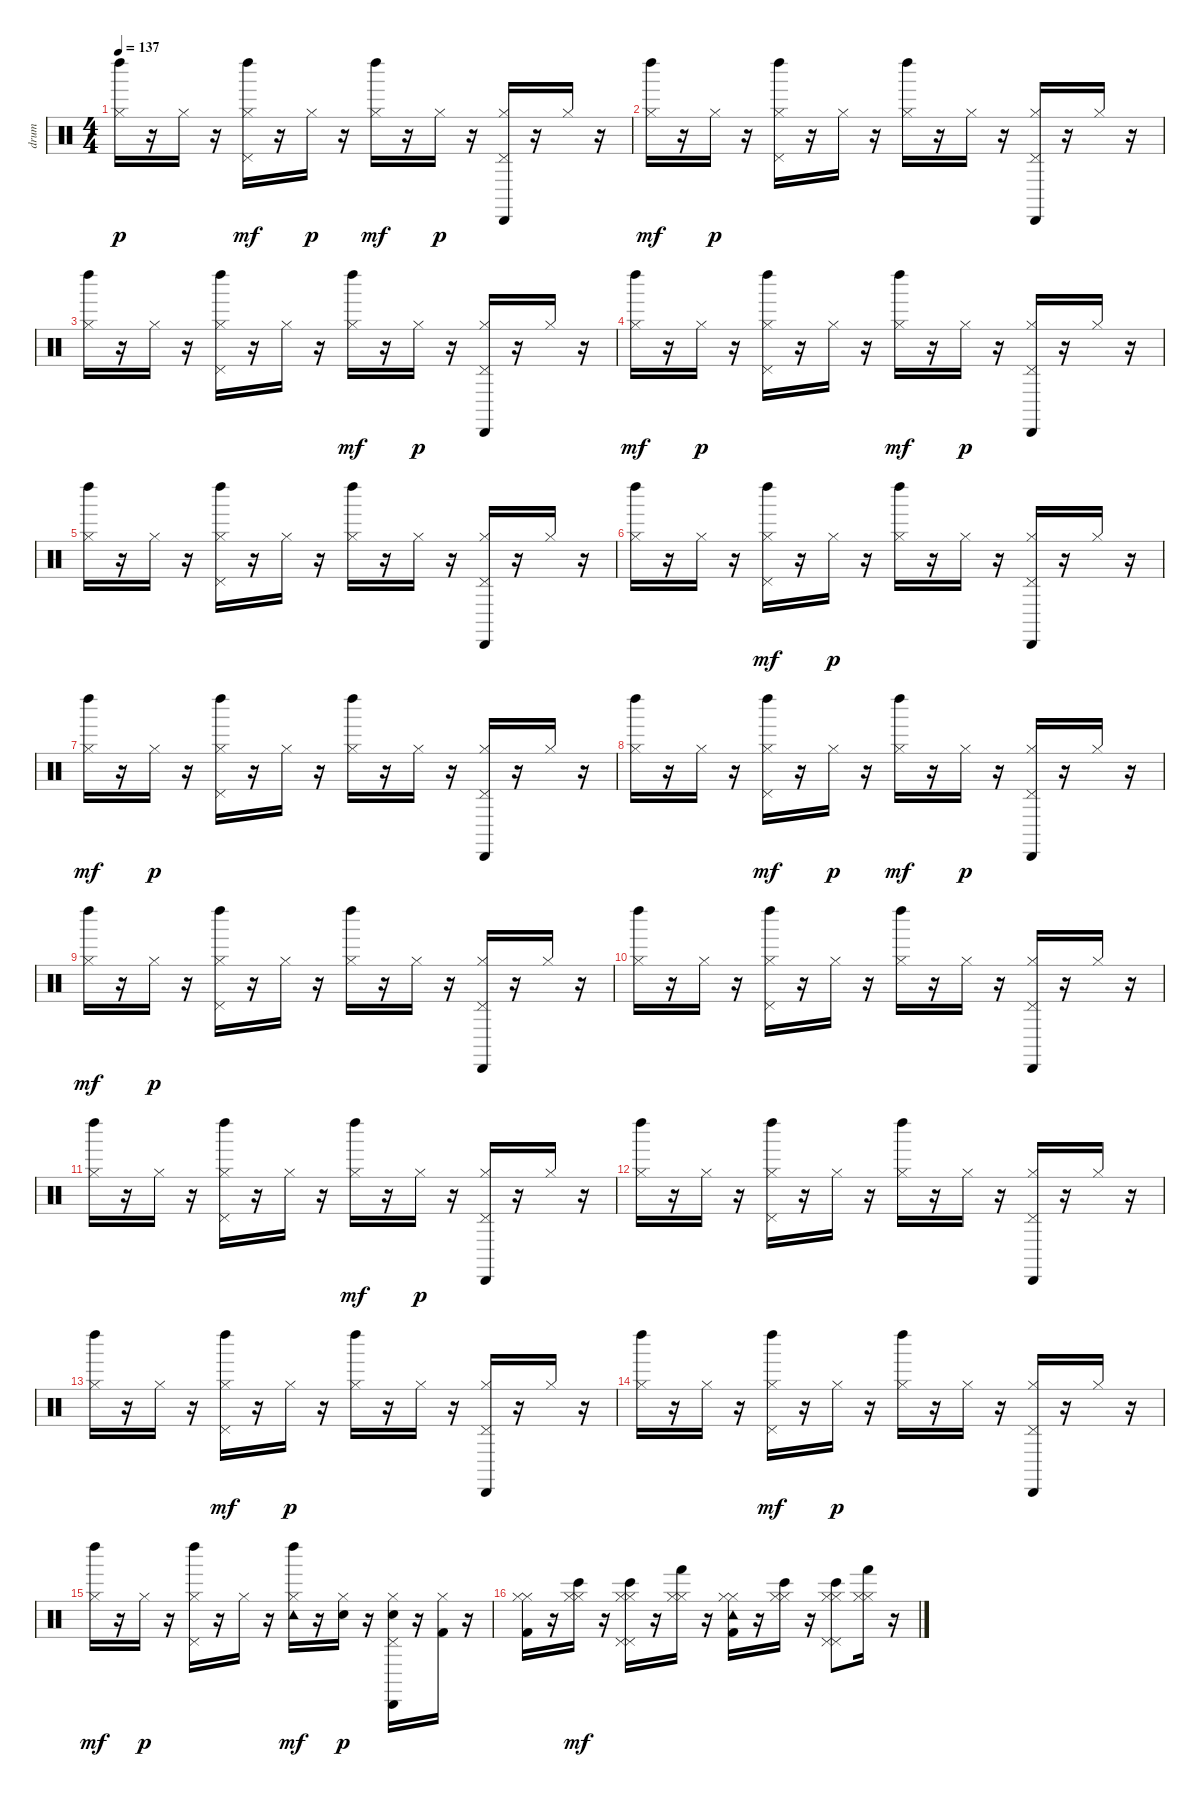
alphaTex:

\track ("drum" "drum") {instrument percussion}
\staff {score}
\articulation defaults
\ts (4 4)
\tempo 137
\clef neutral
\ks c
("Left Maraca (hit)" "Hi-Hat (closed)").16{dy p} r.16 "Hi-Hat (closed)".16 r.16 ("Hi-Hat (closed)" "Left Maraca (hit)" "Pedal Hi-Hat (hit)").16{dy mf} r.16 "Hi-Hat (closed)".16{dy p} r.16 ("Hi-Hat (closed)" "Left Maraca (hit)").16{dy mf} r.16 "Hi-Hat (closed)".16{dy p} r.16 ("Cabasa (hit)" "Hi-Hat (closed)" "Pedal Hi-Hat (hit)").16 r.16 "Hi-Hat (closed)".16 r.16 |
("Hi-Hat (closed)" "Left Maraca (hit)").16{dy mf} r.16 "Hi-Hat (closed)".16{dy p} r.16 ("Left Maraca (hit)" "Hi-Hat (closed)" "Pedal Hi-Hat (hit)").16 r.16 "Hi-Hat (closed)".16 r.16 ("Left Maraca (hit)" "Hi-Hat (closed)").16 r.16 "Hi-Hat (closed)".16 r.16 ("Hi-Hat (closed)" "Cabasa (hit)" "Pedal Hi-Hat (hit)").16 r.16 "Hi-Hat (closed)".16 r.16 |
("Left Maraca (hit)" "Hi-Hat (closed)").16 r.16 "Hi-Hat (closed)".16 r.16 ("Left Maraca (hit)" "Hi-Hat (closed)" "Pedal Hi-Hat (hit)").16 r.16 "Hi-Hat (closed)".16 r.16 ("Hi-Hat (closed)" "Left Maraca (hit)").16{dy mf} r.16 "Hi-Hat (closed)".16{dy p} r.16 ("Hi-Hat (closed)" "Cabasa (hit)" "Pedal Hi-Hat (hit)").16 r.16 "Hi-Hat (closed)".16 r.16 |
("Hi-Hat (closed)" "Left Maraca (hit)").16{dy mf} r.16 "Hi-Hat (closed)".16{dy p} r.16 ("Left Maraca (hit)" "Hi-Hat (closed)" "Pedal Hi-Hat (hit)").16 r.16 "Hi-Hat (closed)".16 r.16 ("Hi-Hat (closed)" "Left Maraca (hit)").16{dy mf} r.16 "Hi-Hat (closed)".16{dy p} r.16 ("Cabasa (hit)" "Hi-Hat (closed)" "Pedal Hi-Hat (hit)").16 r.16 "Hi-Hat (closed)".16 r.16 |
("Left Maraca (hit)" "Hi-Hat (closed)").16 r.16 "Hi-Hat (closed)".16 r.16 ("Left Maraca (hit)" "Hi-Hat (closed)" "Pedal Hi-Hat (hit)").16 r.16 "Hi-Hat (closed)".16 r.16 ("Left Maraca (hit)" "Hi-Hat (closed)").16 r.16 "Hi-Hat (closed)".16 r.16 ("Hi-Hat (closed)" "Cabasa (hit)" "Pedal Hi-Hat (hit)").16 r.16 "Hi-Hat (closed)".16 r.16 |
("Left Maraca (hit)" "Hi-Hat (closed)").16 r.16 "Hi-Hat (closed)".16 r.16 ("Hi-Hat (closed)" "Left Maraca (hit)" "Pedal Hi-Hat (hit)").16{dy mf} r.16 "Hi-Hat (closed)".16{dy p} r.16 ("Left Maraca (hit)" "Hi-Hat (closed)").16 r.16 "Hi-Hat (closed)".16 r.16 ("Hi-Hat (closed)" "Cabasa (hit)" "Pedal Hi-Hat (hit)").16 r.16 "Hi-Hat (closed)".16 r.16 |
("Hi-Hat (closed)" "Left Maraca (hit)").16{dy mf} r.16 "Hi-Hat (closed)".16{dy p} r.16 ("Left Maraca (hit)" "Hi-Hat (closed)" "Pedal Hi-Hat (hit)").16 r.16 "Hi-Hat (closed)".16 r.16 ("Left Maraca (hit)" "Hi-Hat (closed)").16 r.16 "Hi-Hat (closed)".16 r.16 ("Hi-Hat (closed)" "Cabasa (hit)" "Pedal Hi-Hat (hit)").16 r.16 "Hi-Hat (closed)".16 r.16 |
("Left Maraca (hit)" "Hi-Hat (closed)").16 r.16 "Hi-Hat (closed)".16 r.16 ("Hi-Hat (closed)" "Left Maraca (hit)" "Pedal Hi-Hat (hit)").16{dy mf} r.16 "Hi-Hat (closed)".16{dy p} r.16 ("Hi-Hat (closed)" "Left Maraca (hit)").16{dy mf} r.16 "Hi-Hat (closed)".16{dy p} r.16 ("Cabasa (hit)" "Hi-Hat (closed)" "Pedal Hi-Hat (hit)").16 r.16 "Hi-Hat (closed)".16 r.16 |
("Hi-Hat (closed)" "Left Maraca (hit)").16{dy mf} r.16 "Hi-Hat (closed)".16{dy p} r.16 ("Left Maraca (hit)" "Hi-Hat (closed)" "Pedal Hi-Hat (hit)").16 r.16 "Hi-Hat (closed)".16 r.16 ("Left Maraca (hit)" "Hi-Hat (closed)").16 r.16 "Hi-Hat (closed)".16 r.16 ("Cabasa (hit)" "Hi-Hat (closed)" "Pedal Hi-Hat (hit)").16 r.16 "Hi-Hat (closed)".16 r.16 |
("Left Maraca (hit)" "Hi-Hat (closed)").16 r.16 "Hi-Hat (closed)".16 r.16 ("Left Maraca (hit)" "Hi-Hat (closed)" "Pedal Hi-Hat (hit)").16 r.16 "Hi-Hat (closed)".16 r.16 ("Left Maraca (hit)" "Hi-Hat (closed)").16 r.16 "Hi-Hat (closed)".16 r.16 ("Cabasa (hit)" "Hi-Hat (closed)" "Pedal Hi-Hat (hit)").16 r.16 "Hi-Hat (closed)".16 r.16 |
("Left Maraca (hit)" "Hi-Hat (closed)").16 r.16 "Hi-Hat (closed)".16 r.16 ("Left Maraca (hit)" "Hi-Hat (closed)" "Pedal Hi-Hat (hit)").16 r.16 "Hi-Hat (closed)".16 r.16 ("Hi-Hat (closed)" "Left Maraca (hit)").16{dy mf} r.16 "Hi-Hat (closed)".16{dy p} r.16 ("Hi-Hat (closed)" "Cabasa (hit)" "Pedal Hi-Hat (hit)").16 r.16 "Hi-Hat (closed)".16 r.16 |
("Left Maraca (hit)" "Hi-Hat (closed)").16 r.16 "Hi-Hat (closed)".16 r.16 ("Left Maraca (hit)" "Hi-Hat (closed)" "Pedal Hi-Hat (hit)").16 r.16 "Hi-Hat (closed)".16 r.16 ("Left Maraca (hit)" "Hi-Hat (closed)").16 r.16 "Hi-Hat (closed)".16 r.16 ("Hi-Hat (closed)" "Cabasa (hit)" "Pedal Hi-Hat (hit)").16 r.16 "Hi-Hat (closed)".16 r.16 |
("Left Maraca (hit)" "Hi-Hat (closed)").16 r.16 "Hi-Hat (closed)".16 r.16 ("Hi-Hat (closed)" "Left Maraca (hit)" "Pedal Hi-Hat (hit)").16{dy mf} r.16 "Hi-Hat (closed)".16{dy p} r.16 ("Left Maraca (hit)" "Hi-Hat (closed)").16 r.16 "Hi-Hat (closed)".16 r.16 ("Hi-Hat (closed)" "Cabasa (hit)" "Pedal Hi-Hat (hit)").16 r.16 "Hi-Hat (closed)".16 r.16 |
("Left Maraca (hit)" "Hi-Hat (closed)").16 r.16 "Hi-Hat (closed)".16 r.16 ("Hi-Hat (closed)" "Left Maraca (hit)" "Pedal Hi-Hat (hit)").16{dy mf} r.16 "Hi-Hat (closed)".16{dy p} r.16 ("Left Maraca (hit)" "Hi-Hat (closed)").16 r.16 "Hi-Hat (closed)".16 r.16 ("Hi-Hat (closed)" "Cabasa (hit)" "Pedal Hi-Hat (hit)").16 r.16 "Hi-Hat (closed)".16 r.16 |
("Hi-Hat (closed)" "Left Maraca (hit)").16{dy mf} r.16 "Hi-Hat (closed)".16{dy p} r.16 ("Left Maraca (hit)" "Hi-Hat (closed)" "Pedal Hi-Hat (hit)").16 r.16 "Hi-Hat (closed)".16 r.16 ("Tambourine (hit)" "Hi-Hat (closed)" "Left Maraca (hit)").16{dy mf} r.16 ("Snare (hit) 2" "Hi-Hat (closed)").16{dy p} r.16 ("Snare (hit) 2" "Hi-Hat (closed)" "Cabasa (hit)" "Pedal Hi-Hat (hit)").16 r.16 ("Kick (hit) 2" "Hi-Hat (closed)").16 r.16 |
("Kick (hit) 2" "Hi-Hat (closed)" "Hi-Hat (closed)").16 r.16 ("Bongo High (hit)" "Hi-Hat (closed)" "Hi-Hat (closed)").16{dy mf} r.16 ("Hi-Hat (closed)" "Bongo High (hit)" "Hi-Hat (closed)" "Pedal Hi-Hat (hit)" "Pedal Hi-Hat (hit)").16 r.16 ("Hand (hit)" "Hi-Hat (closed)" "Hi-Hat (closed)").16 r.16 ("Tambourine (hit)" "Hi-Hat (closed)" "Kick (hit) 2" "Hi-Hat (closed)").16 r.16 ("Hi-Hat (closed)" "Bongo High (hit)" "Hi-Hat (closed)").16 r.16 ("Hi-Hat (closed)" "Bongo High (hit)" "Pedal Hi-Hat (hit)" "Hi-Hat (closed)" "Pedal Hi-Hat (hit)").8 ("Hi-Hat (closed)" "Hi-Hat (closed)" "Hand (hit)").16 r.16
